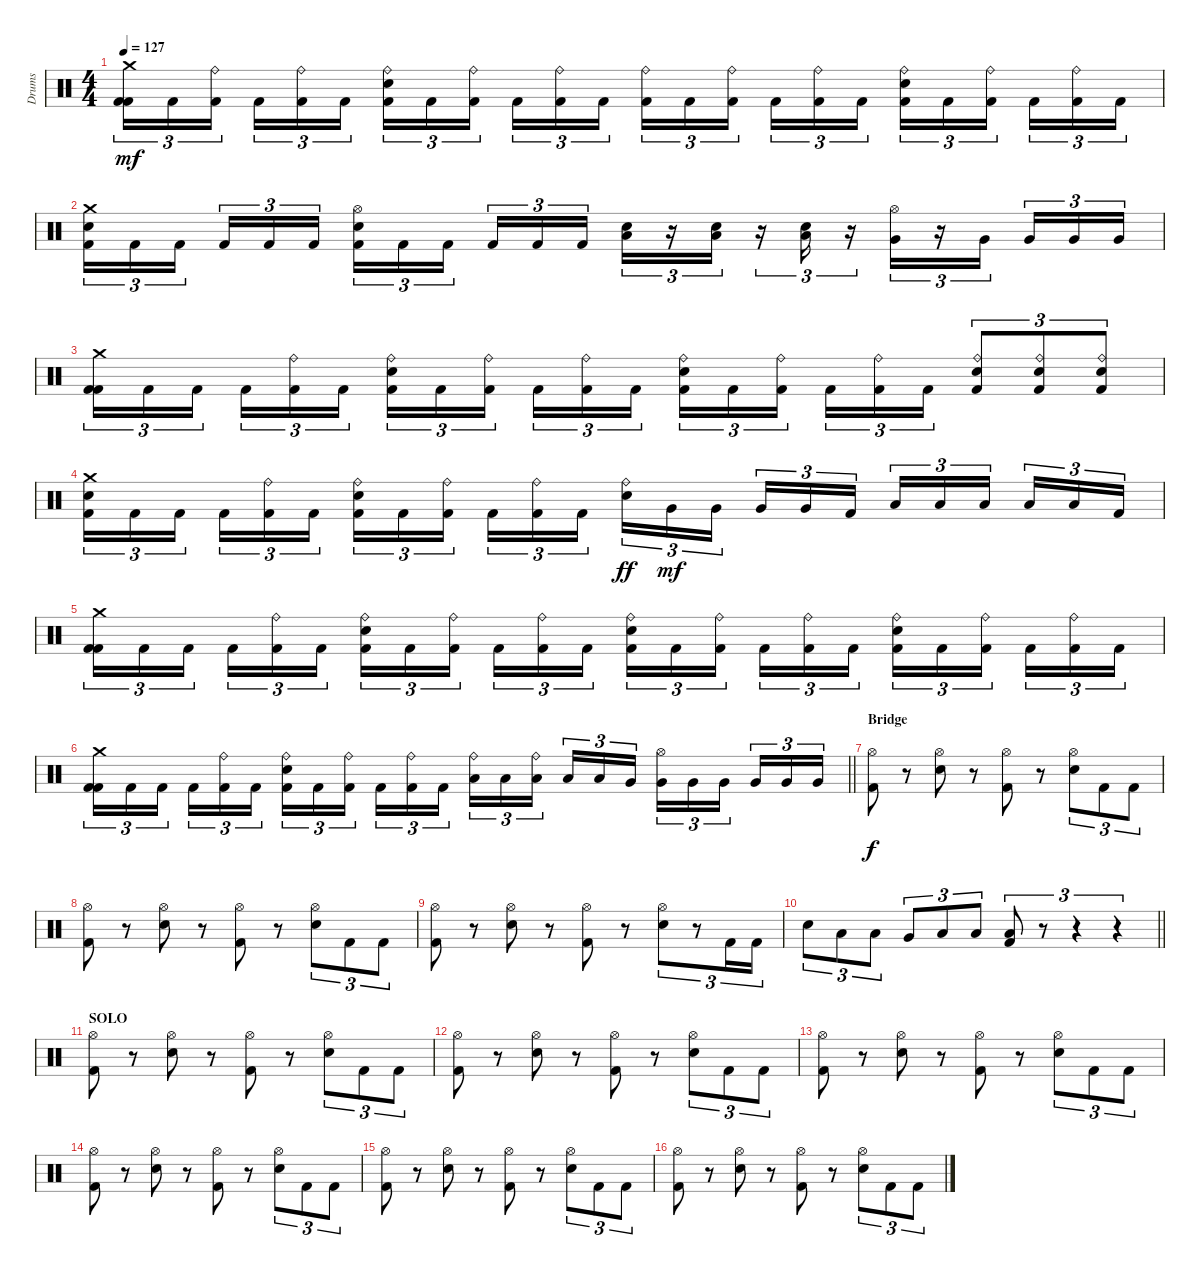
\track ("Drums" "Drums") {instrument percussion}
\staff {score}
\articulation defaults
\ts (4 4)
\tempo 127
\clef neutral
\ks c
("Crash medium (hit)" "Kick (hit) 2" "Kick (hit) 2").16{tu (3 2) dy mf} "Kick (hit) 2".16{tu (3 2)} ("Ride (bell)" "Kick (hit) 2").16{tu (3 2) beam splitsecondary} "Kick (hit) 2".16{tu (3 2)} ("Ride (bell)" "Kick (hit) 2").16{tu (3 2)} "Kick (hit) 2".16{tu (3 2)} ("Ride (bell)" "Snare (hit) 2" "Kick (hit) 2").16{tu (3 2)} "Kick (hit) 2".16{tu (3 2)} ("Ride (bell)" "Kick (hit) 2").16{tu (3 2) beam splitsecondary} "Kick (hit) 2".16{tu (3 2)} ("Ride (bell)" "Kick (hit) 2").16{tu (3 2)} "Kick (hit) 2".16{tu (3 2)} ("Ride (bell)" "Kick (hit) 2").16{tu (3 2)} "Kick (hit) 2".16{tu (3 2)} ("Ride (bell)" "Kick (hit) 2").16{tu (3 2) beam splitsecondary} "Kick (hit) 2".16{tu (3 2)} ("Ride (bell)" "Kick (hit) 2").16{tu (3 2)} "Kick (hit) 2".16{tu (3 2)} ("Ride (bell)" "Snare (hit) 2" "Kick (hit) 2").16{tu (3 2)} "Kick (hit) 2".16{tu (3 2)} ("Ride (bell)" "Kick (hit) 2").16{tu (3 2) beam splitsecondary} "Kick (hit) 2".16{tu (3 2)} ("Ride (bell)" "Kick (hit) 2").16{tu (3 2)} "Kick (hit) 2".16{tu (3 2)} |
("Crash medium (hit)" "Snare (hit) 2" "Kick (hit) 2").16{tu (3 2)} "Kick (hit) 2".16{tu (3 2)} "Kick (hit) 2".16{tu (3 2) beam splitsecondary} "Kick (hit) 2".16{tu (3 2)} "Kick (hit) 2".16{tu (3 2)} "Kick (hit) 2".16{tu (3 2)} ("Hi-Hat (open)" "Snare (hit) 2" "Kick (hit) 2").16{tu (3 2)} "Kick (hit) 2".16{tu (3 2)} "Kick (hit) 2".16{tu (3 2) beam splitsecondary} "Kick (hit) 2".16{tu (3 2)} "Kick (hit) 2".16{tu (3 2)} "Kick (hit) 2".16{tu (3 2)} ("Snare (hit) 2" "Low Tom (hit)").16{tu (3 2)} r.16{tu (3 2)} ("Snare (hit) 2" "Low Tom (hit)").16{tu (3 2)} r.16{tu (3 2)} ("Snare (hit) 2" "Low Tom (hit)").16{tu (3 2)} r.16{tu (3 2)} ("Hi-Hat (open)" "Very Low Tom (hit)").16{tu (3 2)} r.16{tu (3 2)} "Very Low Tom (hit)".16{tu (3 2) beam splitsecondary} "Very Low Tom (hit)".16{tu (3 2)} "Very Low Tom (hit)".16{tu (3 2)} "Very Low Tom (hit)".16{tu (3 2)} |
("Crash medium (hit)" "Kick (hit) 2" "Kick (hit) 2").16{tu (3 2)} "Kick (hit) 2".16{tu (3 2)} "Kick (hit) 2".16{tu (3 2) beam splitsecondary} "Kick (hit) 2".16{tu (3 2)} ("Ride (bell)" "Kick (hit) 2").16{tu (3 2)} "Kick (hit) 2".16{tu (3 2)} ("Ride (bell)" "Snare (hit) 2" "Kick (hit) 2").16{tu (3 2)} "Kick (hit) 2".16{tu (3 2)} ("Ride (bell)" "Kick (hit) 2").16{tu (3 2) beam splitsecondary} "Kick (hit) 2".16{tu (3 2)} ("Ride (bell)" "Kick (hit) 2").16{tu (3 2)} "Kick (hit) 2".16{tu (3 2)} ("Ride (bell)" "Snare (hit) 2" "Kick (hit) 2").16{tu (3 2)} "Kick (hit) 2".16{tu (3 2)} ("Ride (bell)" "Kick (hit) 2").16{tu (3 2) beam splitsecondary} "Kick (hit) 2".16{tu (3 2)} ("Ride (bell)" "Kick (hit) 2").16{tu (3 2)} "Kick (hit) 2".16{tu (3 2)} ("Ride (bell)" "Snare (hit) 2" "Kick (hit) 2").8{tu (3 2)} ("Ride (bell)" "Snare (hit) 2" "Kick (hit) 2").8{tu (3 2)} ("Ride (bell)" "Snare (hit) 2" "Kick (hit) 2").8{tu (3 2)} |
("Crash medium (hit)" "Snare (hit) 2" "Kick (hit) 2").16{tu (3 2)} "Kick (hit) 2".16{tu (3 2)} "Kick (hit) 2".16{tu (3 2) beam splitsecondary} "Kick (hit) 2".16{tu (3 2)} ("Ride (bell)" "Kick (hit) 2").16{tu (3 2)} "Kick (hit) 2".16{tu (3 2)} ("Ride (bell)" "Snare (hit) 2" "Kick (hit) 2").16{tu (3 2)} "Kick (hit) 2".16{tu (3 2)} ("Ride (bell)" "Kick (hit) 2").16{tu (3 2) beam splitsecondary} "Kick (hit) 2".16{tu (3 2)} ("Ride (bell)" "Kick (hit) 2").16{tu (3 2)} "Kick (hit) 2".16{tu (3 2)} ("Ride (bell)" "Snare (hit) 2").16{tu (3 2) dy ff} "Very Low Tom (hit)".16{tu (3 2) dy mf} "Very Low Tom (hit)".16{tu (3 2) beam splitsecondary} "Very Low Tom (hit)".16{tu (3 2)} "Very Low Tom (hit)".16{tu (3 2)} "Kick (hit) 2".16{tu (3 2)} "Low Floor Tom (hit)".16{tu (3 2)} "Low Floor Tom (hit)".16{tu (3 2)} "Low Floor Tom (hit)".16{tu (3 2) beam splitsecondary} "Low Floor Tom (hit)".16{tu (3 2)} "Low Floor Tom (hit)".16{tu (3 2)} "Kick (hit) 2".16{tu (3 2)} |
("Crash medium (hit)" "Kick (hit) 2" "Kick (hit) 2").16{tu (3 2)} "Kick (hit) 2".16{tu (3 2)} "Kick (hit) 2".16{tu (3 2) beam splitsecondary} "Kick (hit) 2".16{tu (3 2)} ("Ride (bell)" "Kick (hit) 2").16{tu (3 2)} "Kick (hit) 2".16{tu (3 2)} ("Ride (bell)" "Snare (hit) 2" "Kick (hit) 2").16{tu (3 2)} "Kick (hit) 2".16{tu (3 2)} ("Ride (bell)" "Kick (hit) 2").16{tu (3 2) beam splitsecondary} "Kick (hit) 2".16{tu (3 2)} ("Ride (bell)" "Kick (hit) 2").16{tu (3 2)} "Kick (hit) 2".16{tu (3 2)} ("Ride (bell)" "Snare (hit) 2" "Kick (hit) 2").16{tu (3 2)} "Kick (hit) 2".16{tu (3 2)} ("Ride (bell)" "Kick (hit) 2").16{tu (3 2) beam splitsecondary} "Kick (hit) 2".16{tu (3 2)} ("Ride (bell)" "Kick (hit) 2").16{tu (3 2)} "Kick (hit) 2".16{tu (3 2)} ("Ride (bell)" "Snare (hit) 2" "Kick (hit) 2").16{tu (3 2)} "Kick (hit) 2".16{tu (3 2)} ("Ride (bell)" "Kick (hit) 2").16{tu (3 2) beam splitsecondary} "Kick (hit) 2".16{tu (3 2)} ("Ride (bell)" "Kick (hit) 2").16{tu (3 2)} "Kick (hit) 2".16{tu (3 2)} |
\barLineRight lightlight
("Crash medium (hit)" "Kick (hit) 2" "Kick (hit) 2").16{tu (3 2)} "Kick (hit) 2".16{tu (3 2)} "Kick (hit) 2".16{tu (3 2) beam splitsecondary} "Kick (hit) 2".16{tu (3 2)} ("Ride (bell)" "Kick (hit) 2").16{tu (3 2)} "Kick (hit) 2".16{tu (3 2)} ("Ride (bell)" "Snare (hit) 2" "Kick (hit) 2").16{tu (3 2)} "Kick (hit) 2".16{tu (3 2)} ("Ride (bell)" "Kick (hit) 2").16{tu (3 2) beam splitsecondary} "Kick (hit) 2".16{tu (3 2)} ("Ride (bell)" "Kick (hit) 2").16{tu (3 2)} "Kick (hit) 2".16{tu (3 2)} ("Ride (bell)" "Low Tom (hit)").16{tu (3 2)} "Low Tom (hit)".16{tu (3 2)} ("Ride (bell)" "Low Tom (hit)").16{tu (3 2) beam splitsecondary} "Low Tom (hit)".16{tu (3 2)} "Low Tom (hit)".16{tu (3 2)} "Very Low Tom (hit)".16{tu (3 2)} ("Hi-Hat (open)" "Very Low Tom (hit)").16{tu (3 2)} "Very Low Tom (hit)".16{tu (3 2)} "Very Low Tom (hit)".16{tu (3 2) beam splitsecondary} "Very Low Tom (hit)".16{tu (3 2)} "Very Low Tom (hit)".16{tu (3 2)} "Very Low Tom (hit)".16{tu (3 2)} |
\section ("" "Bridge")
("Hi-Hat (open)" "Kick (hit) 2").8{dy f} r.8 ("Hi-Hat (open)" "Snare (hit) 2").8 r.8 ("Hi-Hat (open)" "Kick (hit) 2").8 r.8 ("Hi-Hat (open)" "Snare (hit) 2").8{tu (3 2)} "Kick (hit) 2".8{tu (3 2)} "Kick (hit) 2".8{tu (3 2)} |
("Hi-Hat (open)" "Kick (hit) 2").8 r.8 ("Hi-Hat (open)" "Snare (hit) 2").8 r.8 ("Hi-Hat (open)" "Kick (hit) 2").8 r.8 ("Hi-Hat (open)" "Snare (hit) 2").8{tu (3 2)} "Kick (hit) 2".8{tu (3 2)} "Kick (hit) 2".8{tu (3 2)} |
("Hi-Hat (open)" "Kick (hit) 2").8 r.8 ("Hi-Hat (open)" "Snare (hit) 2").8 r.8 ("Hi-Hat (open)" "Kick (hit) 2").8 r.8 ("Hi-Hat (open)" "Snare (hit) 2").8{tu (3 2)} r.8{tu (3 2)} "Kick (hit) 2".16{tu (3 2)} "Kick (hit) 2".16{tu (3 2)} |
\barLineRight lightlight "Snare (hit) 2".8{tu (3 2)} "Low Tom (hit)".8{tu (3 2)} "Low Tom (hit)".8{tu (3 2)} "Very Low Tom (hit)".8{tu (3 2)} "Low Floor Tom (hit)".8{tu (3 2)} "Low Floor Tom (hit)".8{tu (3 2)}
("Kick (hit) 2" "Low Floor Tom (hit)").8{tu (3 2)} r.8{tu (3 2)} r.4{tu (3 2)} r.4{tu (3 2)} |
\section ("" "SOLO")
("Hi-Hat (open)" "Kick (hit) 2").8 r.8 ("Hi-Hat (open)" "Snare (hit) 2").8 r.8 ("Hi-Hat (open)" "Kick (hit) 2").8 r.8 ("Hi-Hat (open)" "Snare (hit) 2").8{tu (3 2)} "Kick (hit) 2".8{tu (3 2)} "Kick (hit) 2".8{tu (3 2)} |
("Hi-Hat (open)" "Kick (hit) 2").8 r.8 ("Hi-Hat (open)" "Snare (hit) 2").8 r.8 ("Hi-Hat (open)" "Kick (hit) 2").8 r.8 ("Hi-Hat (open)" "Snare (hit) 2").8{tu (3 2)} "Kick (hit) 2".8{tu (3 2)} "Kick (hit) 2".8{tu (3 2)} |
("Hi-Hat (open)" "Kick (hit) 2").8 r.8 ("Hi-Hat (open)" "Snare (hit) 2").8 r.8 ("Hi-Hat (open)" "Kick (hit) 2").8 r.8 ("Hi-Hat (open)" "Snare (hit) 2").8{tu (3 2)} "Kick (hit) 2".8{tu (3 2)} "Kick (hit) 2".8{tu (3 2)} |
("Hi-Hat (open)" "Kick (hit) 2").8 r.8 ("Hi-Hat (open)" "Snare (hit) 2").8 r.8 ("Hi-Hat (open)" "Kick (hit) 2").8 r.8 ("Hi-Hat (open)" "Snare (hit) 2").8{tu (3 2)} "Kick (hit) 2".8{tu (3 2)} "Kick (hit) 2".8{tu (3 2)} |
("Hi-Hat (open)" "Kick (hit) 2").8 r.8 ("Hi-Hat (open)" "Snare (hit) 2").8 r.8 ("Hi-Hat (open)" "Kick (hit) 2").8 r.8 ("Hi-Hat (open)" "Snare (hit) 2").8{tu (3 2)} "Kick (hit) 2".8{tu (3 2)} "Kick (hit) 2".8{tu (3 2)} |
("Hi-Hat (open)" "Kick (hit) 2").8 r.8 ("Hi-Hat (open)" "Snare (hit) 2").8 r.8 ("Hi-Hat (open)" "Kick (hit) 2").8 r.8 ("Hi-Hat (open)" "Snare (hit) 2").8{tu (3 2)} "Kick (hit) 2".8{tu (3 2)} "Kick (hit) 2".8{tu (3 2)}
